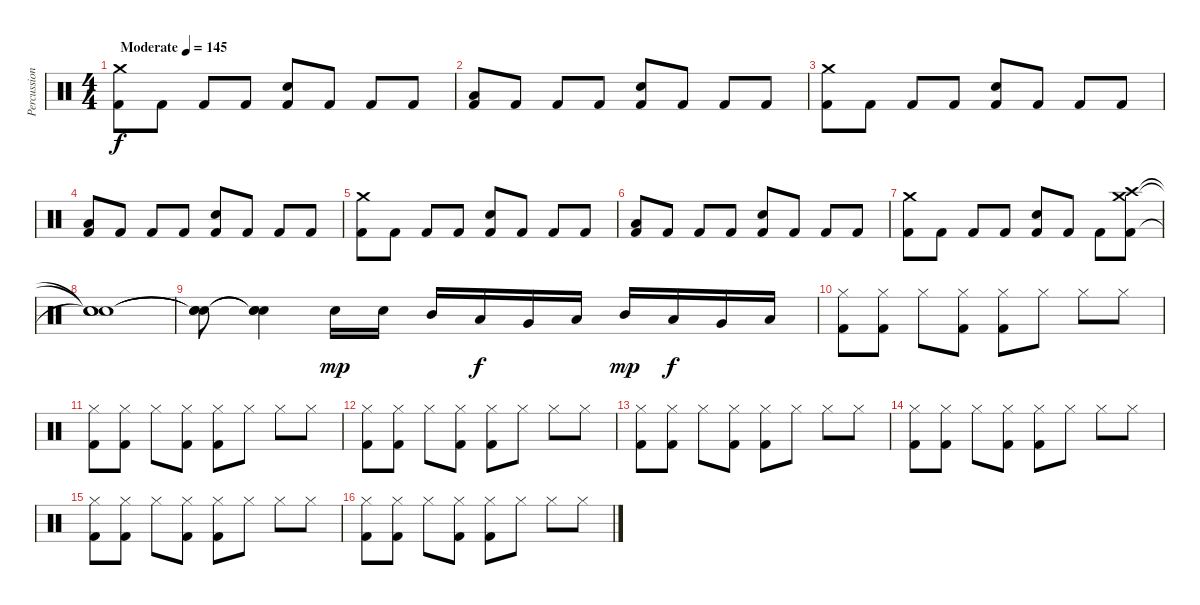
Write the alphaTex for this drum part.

\track ("Percussioni" "Percussion") {instrument percussion}
\staff {score}
\articulation defaults
\ts (4 4)
\tempo (145 "Moderate")
\clef neutral
\ks c
("Crash medium (hit)" "Kick (hit) 2").8{dy f} "Kick (hit) 2".8 "Kick (hit) 2".8 "Kick (hit) 2".8 ("Snare (hit) 2" "Kick (hit) 2").8 "Kick (hit) 2".8 "Kick (hit) 2".8 "Kick (hit) 2".8 |
("Low Floor Tom (hit)" "Kick (hit) 2").8 "Kick (hit) 2".8 "Kick (hit) 2".8 "Kick (hit) 2".8 ("Snare (hit) 2" "Kick (hit) 2").8 "Kick (hit) 2".8 "Kick (hit) 2".8 "Kick (hit) 2".8 |
("Crash medium (hit)" "Kick (hit) 2").8 "Kick (hit) 2".8 "Kick (hit) 2".8 "Kick (hit) 2".8 ("Snare (hit) 2" "Kick (hit) 2").8 "Kick (hit) 2".8 "Kick (hit) 2".8 "Kick (hit) 2".8 |
("Low Floor Tom (hit)" "Kick (hit) 2").8 "Kick (hit) 2".8 "Kick (hit) 2".8 "Kick (hit) 2".8 ("Snare (hit) 2" "Kick (hit) 2").8 "Kick (hit) 2".8 "Kick (hit) 2".8 "Kick (hit) 2".8 |
("Crash medium (hit)" "Kick (hit) 2").8 "Kick (hit) 2".8 "Kick (hit) 2".8 "Kick (hit) 2".8 ("Snare (hit) 2" "Kick (hit) 2").8 "Kick (hit) 2".8 "Kick (hit) 2".8 "Kick (hit) 2".8 |
("Low Floor Tom (hit)" "Kick (hit) 2").8 "Kick (hit) 2".8 "Kick (hit) 2".8 "Kick (hit) 2".8 ("Snare (hit) 2" "Kick (hit) 2").8 "Kick (hit) 2".8 "Kick (hit) 2".8 "Kick (hit) 2".8 |
("Crash medium (hit)" "Kick (hit) 2").8 "Kick (hit) 2".8 "Kick (hit) 2".8 "Kick (hit) 2".8 ("Snare (hit) 2" "Kick (hit) 2").8 "Kick (hit) 2".8 "Kick (hit) 2".8 ("Crash high (hit)" "Crash medium (hit)" "Kick (hit) 2").8 |
("Snare (hit)"{t} "Snare (hit)"{t} "Snare (hit)"{t}).1 |
("Snare (hit)"{t} "Snare (hit)"{t} "Snare (hit)"{t}).8 ("Snare (hit)"{t} "Snare (hit)"{t} "Snare (hit)"{t}).4 "Snare (hit) 2".16{dy mp} "Snare (hit) 2".16 "Mid Tom (hit)".16 "Low Tom (hit)".16{dy f} "Very Low Tom (hit)".16 "Low Floor Tom (hit)".16 "Mid Tom (hit)".16{dy mp} "Low Tom (hit)".16{dy f} "Very Low Tom (hit)".16 "Low Floor Tom (hit)".16 |
("Hi-Hat (closed)" "Kick (hit) 2").8 ("Hi-Hat (closed)" "Kick (hit) 2").8 "Hi-Hat (closed)".8 ("Hi-Hat (closed)" "Kick (hit) 2").8 ("Hi-Hat (closed)" "Kick (hit) 2").8 "Hi-Hat (closed)".8 "Hi-Hat (closed)".8 "Hi-Hat (closed)".8 |
("Hi-Hat (closed)" "Kick (hit) 2").8 ("Hi-Hat (closed)" "Kick (hit) 2").8 "Hi-Hat (closed)".8 ("Hi-Hat (closed)" "Kick (hit) 2").8 ("Hi-Hat (closed)" "Kick (hit) 2").8 "Hi-Hat (closed)".8 "Hi-Hat (closed)".8 "Hi-Hat (closed)".8 |
("Hi-Hat (closed)" "Kick (hit) 2").8 ("Hi-Hat (closed)" "Kick (hit) 2").8 "Hi-Hat (closed)".8 ("Hi-Hat (closed)" "Kick (hit) 2").8 ("Hi-Hat (closed)" "Kick (hit) 2").8 "Hi-Hat (closed)".8 "Hi-Hat (closed)".8 "Hi-Hat (closed)".8 |
("Hi-Hat (closed)" "Kick (hit) 2").8 ("Hi-Hat (closed)" "Kick (hit) 2").8 "Hi-Hat (closed)".8 ("Hi-Hat (closed)" "Kick (hit) 2").8 ("Hi-Hat (closed)" "Kick (hit) 2").8 "Hi-Hat (closed)".8 "Hi-Hat (closed)".8 "Hi-Hat (closed)".8 |
("Hi-Hat (closed)" "Kick (hit) 2").8 ("Hi-Hat (closed)" "Kick (hit) 2").8 "Hi-Hat (closed)".8 ("Hi-Hat (closed)" "Kick (hit) 2").8 ("Hi-Hat (closed)" "Kick (hit) 2").8 "Hi-Hat (closed)".8 "Hi-Hat (closed)".8 "Hi-Hat (closed)".8 |
("Hi-Hat (closed)" "Kick (hit) 2").8 ("Hi-Hat (closed)" "Kick (hit) 2").8 "Hi-Hat (closed)".8 ("Hi-Hat (closed)" "Kick (hit) 2").8 ("Hi-Hat (closed)" "Kick (hit) 2").8 "Hi-Hat (closed)".8 "Hi-Hat (closed)".8 "Hi-Hat (closed)".8 |
("Hi-Hat (closed)" "Kick (hit) 2").8 ("Hi-Hat (closed)" "Kick (hit) 2").8 "Hi-Hat (closed)".8 ("Hi-Hat (closed)" "Kick (hit) 2").8 ("Hi-Hat (closed)" "Kick (hit) 2").8 "Hi-Hat (closed)".8 "Hi-Hat (closed)".8 "Hi-Hat (closed)".8
